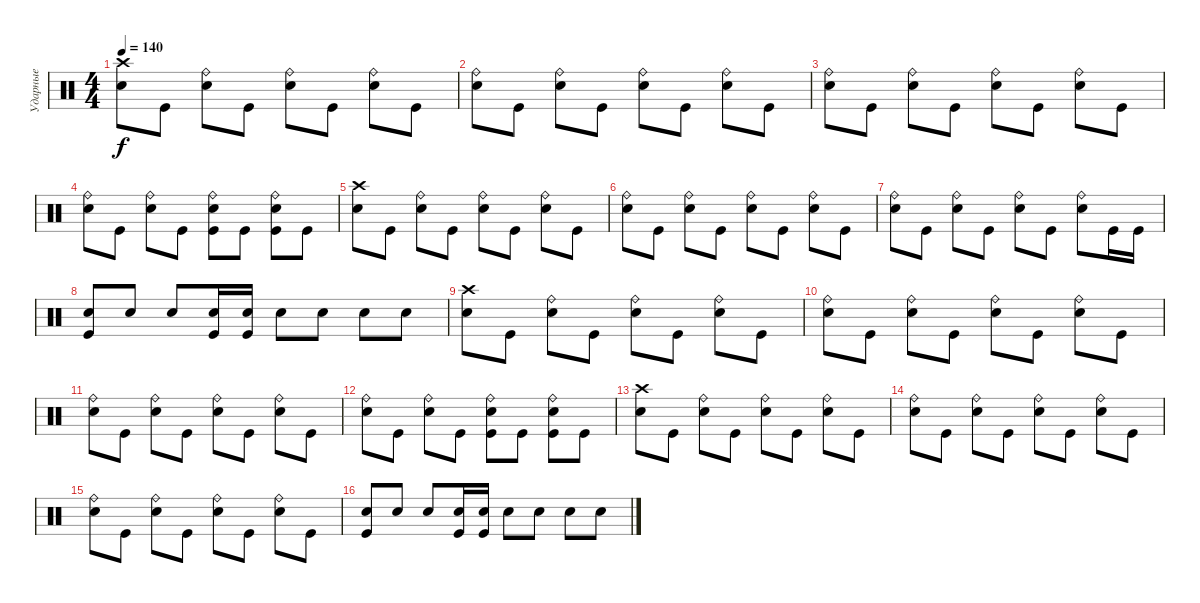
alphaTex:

\track ("Ударные" "Ударные") {instrument percussion}
\staff {score}
\articulation defaults
\ts (4 4)
\tempo 140
\clef neutral
\ks c
("Crash high (hit)" "Electric Snare (hit)").8{dy f} "Kick (hit)".8 ("Ride (bell)" "Electric Snare (hit)").8 "Kick (hit)".8 ("Ride (bell)" "Electric Snare (hit)").8 "Kick (hit)".8 ("Ride (bell)" "Electric Snare (hit)").8 "Kick (hit)".8 |
("Ride (bell)" "Electric Snare (hit)").8 "Kick (hit)".8 ("Ride (bell)" "Electric Snare (hit)").8 "Kick (hit)".8 ("Ride (bell)" "Electric Snare (hit)").8 "Kick (hit)".8 ("Ride (bell)" "Electric Snare (hit)").8 "Kick (hit)".8 |
("Ride (bell)" "Electric Snare (hit)").8 "Kick (hit)".8 ("Ride (bell)" "Electric Snare (hit)").8 "Kick (hit)".8 ("Ride (bell)" "Electric Snare (hit)").8 "Kick (hit)".8 ("Ride (bell)" "Electric Snare (hit)").8 "Kick (hit)".8 |
("Ride (bell)" "Electric Snare (hit)").8 "Kick (hit)".8 ("Ride (bell)" "Electric Snare (hit)").8 "Kick (hit)".8 ("Ride (bell)" "Electric Snare (hit)" "Kick (hit)").8 "Kick (hit)".8 ("Ride (bell)" "Electric Snare (hit)" "Kick (hit)").8 "Kick (hit)".8 |
("Crash high (hit)" "Electric Snare (hit)").8 "Kick (hit)".8 ("Ride (bell)" "Electric Snare (hit)").8 "Kick (hit)".8 ("Ride (bell)" "Electric Snare (hit)").8 "Kick (hit)".8 ("Ride (bell)" "Electric Snare (hit)").8 "Kick (hit)".8 |
("Ride (bell)" "Electric Snare (hit)").8 "Kick (hit)".8 ("Ride (bell)" "Electric Snare (hit)").8 "Kick (hit)".8 ("Ride (bell)" "Electric Snare (hit)").8 "Kick (hit)".8 ("Ride (bell)" "Electric Snare (hit)").8 "Kick (hit)".8 |
("Ride (bell)" "Electric Snare (hit)").8 "Kick (hit)".8 ("Ride (bell)" "Electric Snare (hit)").8 "Kick (hit)".8 ("Ride (bell)" "Electric Snare (hit)").8 "Kick (hit)".8 ("Ride (bell)" "Electric Snare (hit)").8 "Kick (hit)".16 "Kick (hit)".16 |
("Electric Snare (hit)" "Kick (hit)").8 "Electric Snare (hit)".8 "Electric Snare (hit)".8 ("Electric Snare (hit)" "Kick (hit)").16 ("Electric Snare (hit)" "Kick (hit)").16 "Electric Snare (hit)".8 "Electric Snare (hit)".8 "Electric Snare (hit)".8 "Electric Snare (hit)".8 |
("Crash high (hit)" "Electric Snare (hit)").8 "Kick (hit)".8 ("Ride (bell)" "Electric Snare (hit)").8 "Kick (hit)".8 ("Ride (bell)" "Electric Snare (hit)").8 "Kick (hit)".8 ("Ride (bell)" "Electric Snare (hit)").8 "Kick (hit)".8 |
("Ride (bell)" "Electric Snare (hit)").8 "Kick (hit)".8 ("Ride (bell)" "Electric Snare (hit)").8 "Kick (hit)".8 ("Ride (bell)" "Electric Snare (hit)").8 "Kick (hit)".8 ("Ride (bell)" "Electric Snare (hit)").8 "Kick (hit)".8 |
("Ride (bell)" "Electric Snare (hit)").8 "Kick (hit)".8 ("Ride (bell)" "Electric Snare (hit)").8 "Kick (hit)".8 ("Ride (bell)" "Electric Snare (hit)").8 "Kick (hit)".8 ("Ride (bell)" "Electric Snare (hit)").8 "Kick (hit)".8 |
("Ride (bell)" "Electric Snare (hit)").8 "Kick (hit)".8 ("Ride (bell)" "Electric Snare (hit)").8 "Kick (hit)".8 ("Ride (bell)" "Electric Snare (hit)" "Kick (hit)").8 "Kick (hit)".8 ("Ride (bell)" "Electric Snare (hit)" "Kick (hit)").8 "Kick (hit)".8 |
("Crash high (hit)" "Electric Snare (hit)").8 "Kick (hit)".8 ("Ride (bell)" "Electric Snare (hit)").8 "Kick (hit)".8 ("Ride (bell)" "Electric Snare (hit)").8 "Kick (hit)".8 ("Ride (bell)" "Electric Snare (hit)").8 "Kick (hit)".8 |
("Ride (bell)" "Electric Snare (hit)").8 "Kick (hit)".8 ("Ride (bell)" "Electric Snare (hit)").8 "Kick (hit)".8 ("Ride (bell)" "Electric Snare (hit)").8 "Kick (hit)".8 ("Ride (bell)" "Electric Snare (hit)").8 "Kick (hit)".8 |
("Ride (bell)" "Electric Snare (hit)").8 "Kick (hit)".8 ("Ride (bell)" "Electric Snare (hit)").8 "Kick (hit)".8 ("Ride (bell)" "Electric Snare (hit)").8 "Kick (hit)".8 ("Ride (bell)" "Electric Snare (hit)").8 "Kick (hit)".8 |
("Electric Snare (hit)" "Kick (hit)").8 "Electric Snare (hit)".8 "Electric Snare (hit)".8 ("Electric Snare (hit)" "Kick (hit)").16 ("Electric Snare (hit)" "Kick (hit)").16 "Electric Snare (hit)".8 "Electric Snare (hit)".8 "Electric Snare (hit)".8 "Electric Snare (hit)".8
